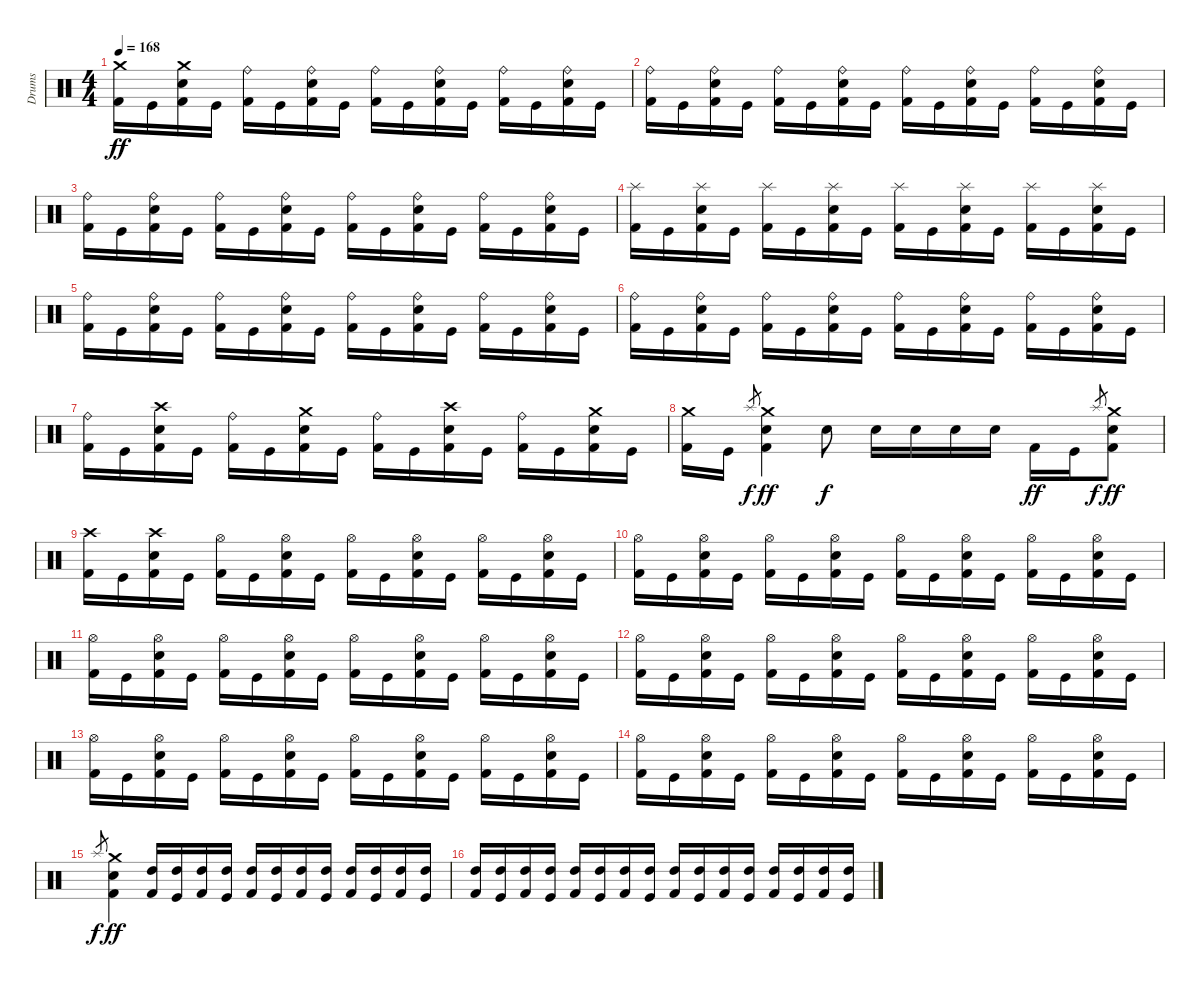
\track ("Drums" "Drums") {instrument percussion}
\staff {score}
\articulation defaults
\ts (4 4)
\tempo 168
\clef neutral
\ks c
("Crash medium (hit)" "Kick (hit) 2").16{dy ff} "Kick (hit)".16 ("Crash medium (hit)" "Electric Snare (hit)" "Kick (hit) 2").16 "Kick (hit)".16 ("Ride (bell)" "Kick (hit) 2").16 "Kick (hit)".16 ("Ride (bell)" "Electric Snare (hit)" "Kick (hit) 2").16 "Kick (hit)".16 ("Ride (bell)" "Kick (hit) 2").16 "Kick (hit)".16 ("Ride (bell)" "Electric Snare (hit)" "Kick (hit) 2").16 "Kick (hit)".16 ("Ride (bell)" "Kick (hit) 2").16 "Kick (hit)".16 ("Ride (bell)" "Electric Snare (hit)" "Kick (hit) 2").16 "Kick (hit)".16 |
("Ride (bell)" "Kick (hit) 2").16 "Kick (hit)".16 ("Ride (bell)" "Electric Snare (hit)" "Kick (hit) 2").16 "Kick (hit)".16 ("Ride (bell)" "Kick (hit) 2").16 "Kick (hit)".16 ("Ride (bell)" "Electric Snare (hit)" "Kick (hit) 2").16 "Kick (hit)".16 ("Ride (bell)" "Kick (hit) 2").16 "Kick (hit)".16 ("Ride (bell)" "Electric Snare (hit)" "Kick (hit) 2").16 "Kick (hit)".16 ("Ride (bell)" "Kick (hit) 2").16 "Kick (hit)".16 ("Ride (bell)" "Electric Snare (hit)" "Kick (hit) 2").16 "Kick (hit)".16 |
("Ride (bell)" "Kick (hit) 2").16 "Kick (hit)".16 ("Ride (bell)" "Electric Snare (hit)" "Kick (hit) 2").16 "Kick (hit)".16 ("Ride (bell)" "Kick (hit) 2").16 "Kick (hit)".16 ("Ride (bell)" "Electric Snare (hit)" "Kick (hit) 2").16 "Kick (hit)".16 ("Ride (bell)" "Kick (hit) 2").16 "Kick (hit)".16 ("Ride (bell)" "Electric Snare (hit)" "Kick (hit) 2").16 "Kick (hit)".16 ("Ride (bell)" "Kick (hit) 2").16 "Kick (hit)".16 ("Ride (bell)" "Electric Snare (hit)" "Kick (hit) 2").16 "Kick (hit)".16 |
("Splash (hit)" "Kick (hit) 2").16 "Kick (hit)".16 ("Splash (hit)" "Electric Snare (hit)" "Kick (hit) 2").16 "Kick (hit)".16 ("Splash (hit)" "Kick (hit) 2").16 "Kick (hit)".16 ("Splash (hit)" "Electric Snare (hit)" "Kick (hit) 2").16 "Kick (hit)".16 ("Splash (hit)" "Kick (hit) 2").16 "Kick (hit)".16 ("Splash (hit)" "Electric Snare (hit)" "Kick (hit) 2").16 "Kick (hit)".16 ("Splash (hit)" "Kick (hit) 2").16 "Kick (hit)".16 ("Splash (hit)" "Electric Snare (hit)" "Kick (hit) 2").16 "Kick (hit)".16 |
("Ride (bell)" "Kick (hit) 2").16 "Kick (hit)".16 ("Ride (bell)" "Electric Snare (hit)" "Kick (hit) 2").16 "Kick (hit)".16 ("Ride (bell)" "Kick (hit) 2").16 "Kick (hit)".16 ("Ride (bell)" "Electric Snare (hit)" "Kick (hit) 2").16 "Kick (hit)".16 ("Ride (bell)" "Kick (hit) 2").16 "Kick (hit)".16 ("Ride (bell)" "Electric Snare (hit)" "Kick (hit) 2").16 "Kick (hit)".16 ("Ride (bell)" "Kick (hit) 2").16 "Kick (hit)".16 ("Ride (bell)" "Electric Snare (hit)" "Kick (hit) 2").16 "Kick (hit)".16 |
("Ride (bell)" "Kick (hit) 2").16 "Kick (hit)".16 ("Ride (bell)" "Electric Snare (hit)" "Kick (hit) 2").16 "Kick (hit)".16 ("Ride (bell)" "Kick (hit) 2").16 "Kick (hit)".16 ("Ride (bell)" "Electric Snare (hit)" "Kick (hit) 2").16 "Kick (hit)".16 ("Ride (bell)" "Kick (hit) 2").16 "Kick (hit)".16 ("Ride (bell)" "Electric Snare (hit)" "Kick (hit) 2").16 "Kick (hit)".16 ("Ride (bell)" "Kick (hit) 2").16 "Kick (hit)".16 ("Ride (bell)" "Electric Snare (hit)" "Kick (hit) 2").16 "Kick (hit)".16 |
("Ride (bell)" "Kick (hit) 2").16 "Kick (hit)".16 ("Crash high (hit)" "Electric Snare (hit)" "Kick (hit) 2").16 "Kick (hit)".16 ("Ride (bell)" "Kick (hit) 2").16 "Kick (hit)".16 ("Crash medium (hit)" "Electric Snare (hit)" "Kick (hit) 2").16 "Kick (hit)".16 ("Ride (bell)" "Kick (hit) 2").16 "Kick (hit)".16 ("Crash high (hit)" "Electric Snare (hit)" "Kick (hit) 2").16 "Kick (hit)".16 ("Ride (bell)" "Kick (hit) 2").16 "Kick (hit)".16 ("Crash medium (hit)" "Electric Snare (hit)" "Kick (hit) 2").16 "Kick (hit)".16 |
("Crash medium (hit)" "Kick (hit) 2").16 "Kick (hit)".16 "Splash (hit)".8{gr dy f} ("Crash medium (hit)" "Electric Snare (hit)" "Kick (hit) 2").4{dy ff} "Electric Snare (hit)".8{dy f} "Electric Snare (hit)".16 "Electric Snare (hit)".16 "Electric Snare (hit)".16 "Electric Snare (hit)".16 "Kick (hit) 2".16{dy ff} "Kick (hit)".16 "Splash (hit)".8{gr dy f} ("Crash medium (hit)" "Electric Snare (hit)" "Kick (hit) 2").8{dy ff} |
("Crash high (hit)" "Kick (hit) 2").16 "Kick (hit)".16 ("Crash high (hit)" "Electric Snare (hit)" "Kick (hit) 2").16 "Kick (hit)".16 ("Hi-Hat (open)" "Kick (hit) 2").16 "Kick (hit)".16 ("Hi-Hat (open)" "Electric Snare (hit)" "Kick (hit) 2").16 "Kick (hit)".16 ("Hi-Hat (open)" "Kick (hit) 2").16 "Kick (hit)".16 ("Hi-Hat (open)" "Electric Snare (hit)" "Kick (hit) 2").16 "Kick (hit)".16 ("Hi-Hat (open)" "Kick (hit) 2").16 "Kick (hit)".16 ("Hi-Hat (open)" "Electric Snare (hit)" "Kick (hit) 2").16 "Kick (hit)".16 |
("Hi-Hat (open)" "Kick (hit) 2").16 "Kick (hit)".16 ("Hi-Hat (open)" "Electric Snare (hit)" "Kick (hit) 2").16 "Kick (hit)".16 ("Hi-Hat (open)" "Kick (hit) 2").16 "Kick (hit)".16 ("Hi-Hat (open)" "Electric Snare (hit)" "Kick (hit) 2").16 "Kick (hit)".16 ("Hi-Hat (open)" "Kick (hit) 2").16 "Kick (hit)".16 ("Hi-Hat (open)" "Electric Snare (hit)" "Kick (hit) 2").16 "Kick (hit)".16 ("Hi-Hat (open)" "Kick (hit) 2").16 "Kick (hit)".16 ("Hi-Hat (open)" "Electric Snare (hit)" "Kick (hit) 2").16 "Kick (hit)".16 |
("Hi-Hat (open)" "Kick (hit) 2").16 "Kick (hit)".16 ("Hi-Hat (open)" "Electric Snare (hit)" "Kick (hit) 2").16 "Kick (hit)".16 ("Hi-Hat (open)" "Kick (hit) 2").16 "Kick (hit)".16 ("Hi-Hat (open)" "Electric Snare (hit)" "Kick (hit) 2").16 "Kick (hit)".16 ("Hi-Hat (open)" "Kick (hit) 2").16 "Kick (hit)".16 ("Hi-Hat (open)" "Electric Snare (hit)" "Kick (hit) 2").16 "Kick (hit)".16 ("Hi-Hat (open)" "Kick (hit) 2").16 "Kick (hit)".16 ("Hi-Hat (open)" "Electric Snare (hit)" "Kick (hit) 2").16 "Kick (hit)".16 |
("Hi-Hat (open)" "Kick (hit) 2").16 "Kick (hit)".16 ("Hi-Hat (open)" "Electric Snare (hit)" "Kick (hit) 2").16 "Kick (hit)".16 ("Hi-Hat (open)" "Kick (hit) 2").16 "Kick (hit)".16 ("Hi-Hat (open)" "Electric Snare (hit)" "Kick (hit) 2").16 "Kick (hit)".16 ("Hi-Hat (open)" "Kick (hit) 2").16 "Kick (hit)".16 ("Hi-Hat (open)" "Electric Snare (hit)" "Kick (hit) 2").16 "Kick (hit)".16 ("Hi-Hat (open)" "Kick (hit) 2").16 "Kick (hit)".16 ("Hi-Hat (open)" "Electric Snare (hit)" "Kick (hit) 2").16 "Kick (hit)".16 |
("Hi-Hat (open)" "Kick (hit) 2").16 "Kick (hit)".16 ("Hi-Hat (open)" "Electric Snare (hit)" "Kick (hit) 2").16 "Kick (hit)".16 ("Hi-Hat (open)" "Kick (hit) 2").16 "Kick (hit)".16 ("Hi-Hat (open)" "Electric Snare (hit)" "Kick (hit) 2").16 "Kick (hit)".16 ("Hi-Hat (open)" "Kick (hit) 2").16 "Kick (hit)".16 ("Hi-Hat (open)" "Electric Snare (hit)" "Kick (hit) 2").16 "Kick (hit)".16 ("Hi-Hat (open)" "Kick (hit) 2").16 "Kick (hit)".16 ("Hi-Hat (open)" "Electric Snare (hit)" "Kick (hit) 2").16 "Kick (hit)".16 |
("Hi-Hat (open)" "Kick (hit) 2").16 "Kick (hit)".16 ("Hi-Hat (open)" "Electric Snare (hit)" "Kick (hit) 2").16 "Kick (hit)".16 ("Hi-Hat (open)" "Kick (hit) 2").16 "Kick (hit)".16 ("Hi-Hat (open)" "Electric Snare (hit)" "Kick (hit) 2").16 "Kick (hit)".16 ("Hi-Hat (open)" "Kick (hit) 2").16 "Kick (hit)".16 ("Hi-Hat (open)" "Electric Snare (hit)" "Kick (hit) 2").16 "Kick (hit)".16 ("Hi-Hat (open)" "Kick (hit) 2").16 "Kick (hit)".16 ("Hi-Hat (open)" "Electric Snare (hit)" "Kick (hit) 2").16 "Kick (hit)".16 |
"Splash (hit)".8{gr dy f} ("Crash medium (hit)" "Electric Snare (hit)" "Kick (hit) 2").4{dy ff} ("High Tom (hit)" "Kick (hit) 2").16 ("High Tom (hit)" "Kick (hit)").16 ("High Tom (hit)" "Kick (hit) 2").16 ("High Tom (hit)" "Kick (hit)").16 ("High Tom (hit)" "Kick (hit) 2").16 ("High Tom (hit)" "Kick (hit)").16 ("High Tom (hit)" "Kick (hit) 2").16 ("High Tom (hit)" "Kick (hit)").16 ("High Tom (hit)" "Kick (hit) 2").16 ("High Tom (hit)" "Kick (hit)").16 ("High Tom (hit)" "Kick (hit) 2").16 ("High Tom (hit)" "Kick (hit)").16 |
("High Tom (hit)" "Kick (hit) 2").16 ("High Tom (hit)" "Kick (hit)").16 ("High Tom (hit)" "Kick (hit) 2").16 ("High Tom (hit)" "Kick (hit)").16 ("High Tom (hit)" "Kick (hit) 2").16 ("High Tom (hit)" "Kick (hit)").16 ("High Tom (hit)" "Kick (hit) 2").16 ("High Tom (hit)" "Kick (hit)").16 ("High Tom (hit)" "Kick (hit) 2").16 ("High Tom (hit)" "Kick (hit)").16 ("High Tom (hit)" "Kick (hit) 2").16 ("High Tom (hit)" "Kick (hit)").16 ("High Tom (hit)" "Kick (hit) 2").16 ("High Tom (hit)" "Kick (hit)").16 ("High Tom (hit)" "Kick (hit) 2").16 ("High Tom (hit)" "Kick (hit)").16
